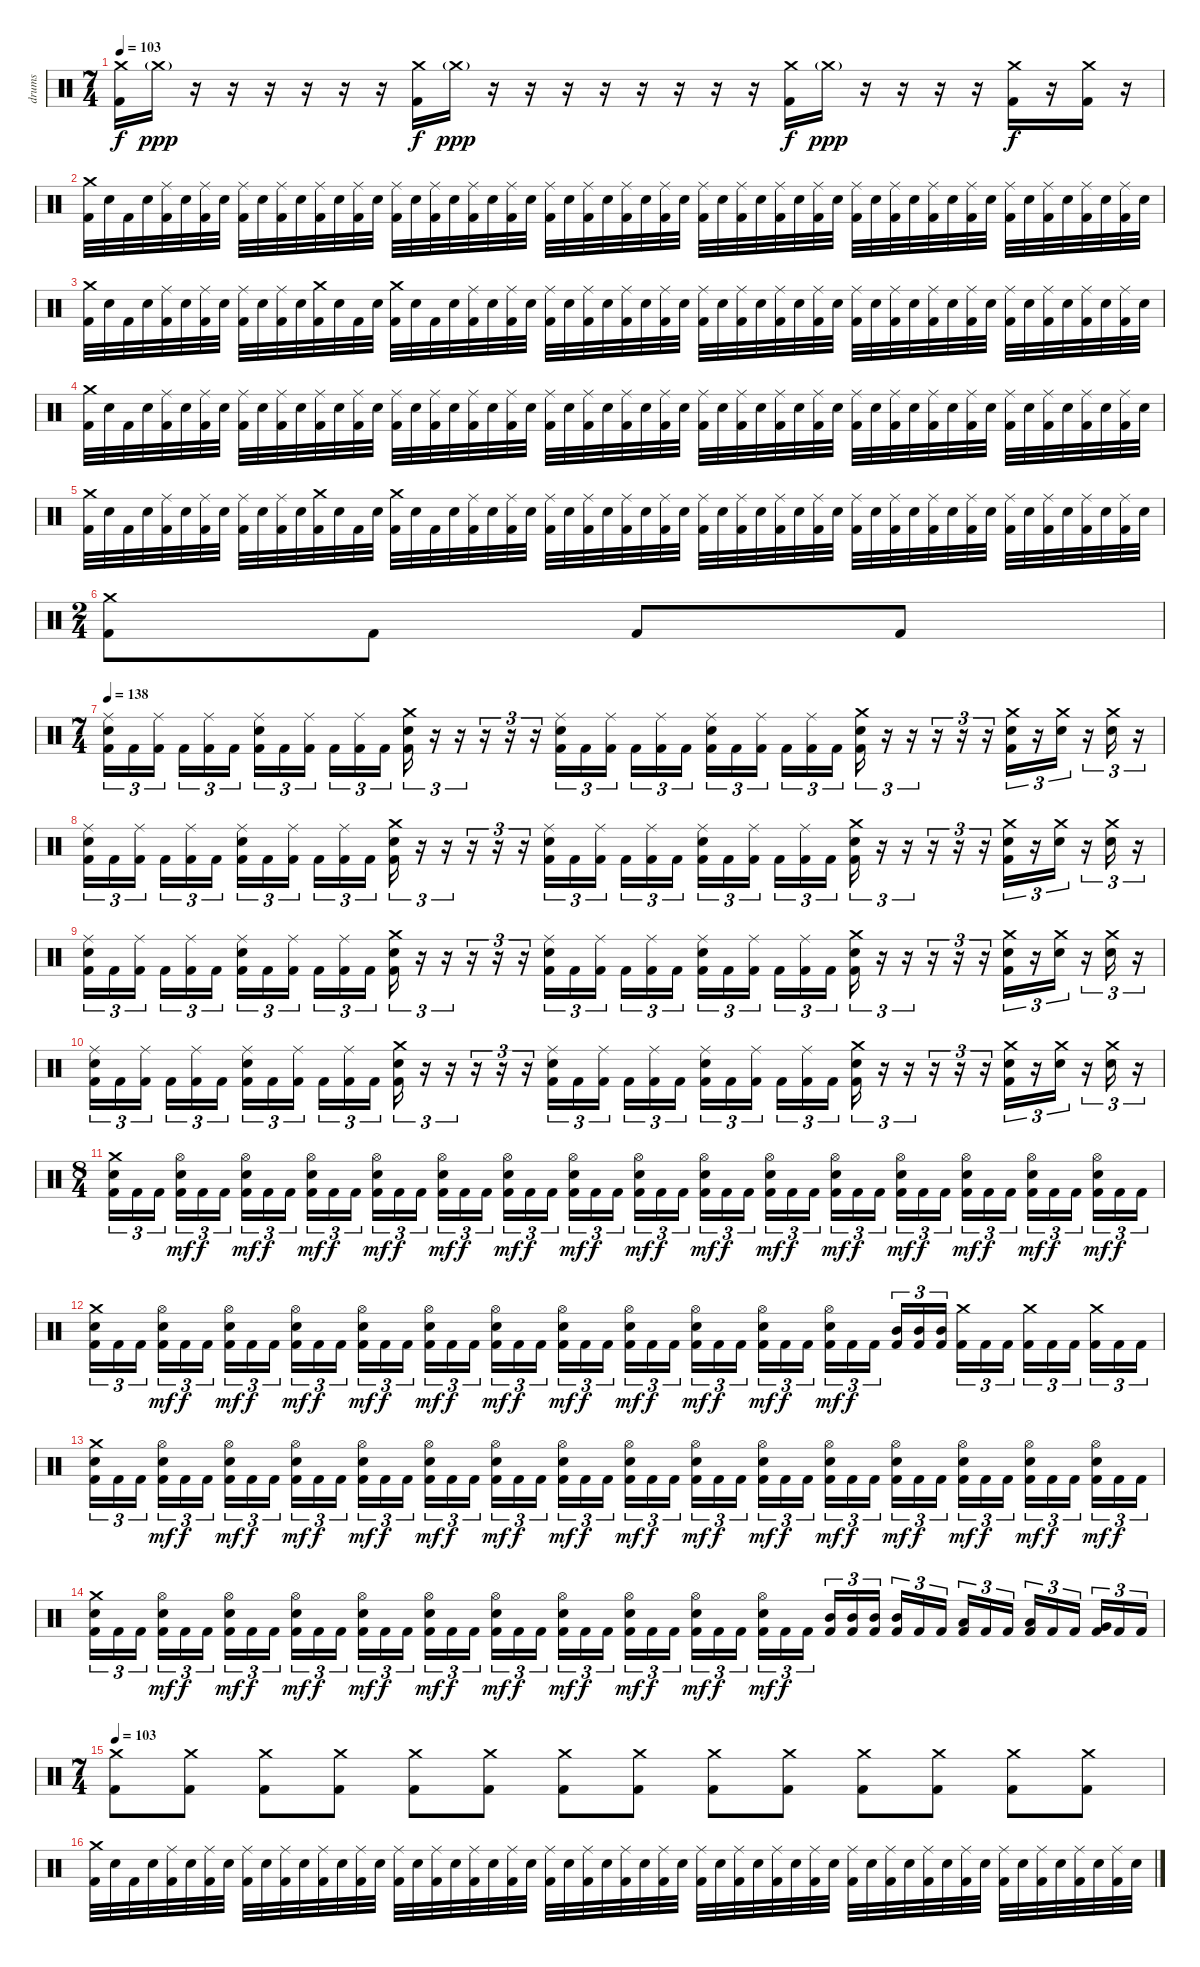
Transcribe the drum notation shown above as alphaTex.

\track ("drums" "drums") {instrument percussion}
\staff {score}
\articulation defaults
\ts (7 4)
\tempo 103
\clef neutral
\ks c
("Crash medium (hit)" "Kick (hit) 2").16{dy f} "Crash medium (hit)"{g}.16{dy ppp} r.16 r.16 r.16 r.16 r.16 r.16 ("Crash medium (hit)" "Kick (hit) 2").16{dy f} "Crash medium (hit)"{g}.16{dy ppp} r.16 r.16 r.16 r.16 r.16 r.16 r.16 r.16 ("Crash medium (hit)" "Kick (hit) 2").16{dy f} "Crash medium (hit)"{g}.16{dy ppp} r.16 r.16 r.16 r.16 ("Crash medium (hit)" "Kick (hit) 2").16{dy f} r.16 ("Crash medium (hit)" "Kick (hit) 2").16 r.16 |
("Crash medium (hit)" "Kick (hit) 2").32 "Electric Snare (hit)".32 "Kick (hit) 2".32 "Electric Snare (hit)".32 ("Ride (middle)" "Kick (hit) 2").32 "Electric Snare (hit)".32 ("Ride (middle)" "Kick (hit) 2").32 "Electric Snare (hit)".32 ("Ride (middle)" "Kick (hit) 2").32 "Electric Snare (hit)".32 ("Ride (middle)" "Kick (hit) 2").32 "Electric Snare (hit)".32 ("Ride (middle)" "Kick (hit) 2").32 "Electric Snare (hit)".32 ("Ride (middle)" "Kick (hit) 2").32 "Electric Snare (hit)".32 ("Ride (middle)" "Kick (hit) 2").32 "Electric Snare (hit)".32 ("Ride (middle)" "Kick (hit) 2").32 "Electric Snare (hit)".32 ("Ride (middle)" "Kick (hit) 2").32 "Electric Snare (hit)".32 ("Ride (middle)" "Kick (hit) 2").32 "Electric Snare (hit)".32 ("Ride (middle)" "Kick (hit) 2").32 "Electric Snare (hit)".32 ("Ride (middle)" "Kick (hit) 2").32 "Electric Snare (hit)".32 ("Ride (middle)" "Kick (hit) 2").32 "Electric Snare (hit)".32 ("Ride (middle)" "Kick (hit) 2").32 "Electric Snare (hit)".32 ("Ride (middle)" "Kick (hit) 2").32 "Electric Snare (hit)".32 ("Ride (middle)" "Kick (hit) 2").32 "Electric Snare (hit)".32 ("Ride (middle)" "Kick (hit) 2").32 "Electric Snare (hit)".32 ("Ride (middle)" "Kick (hit) 2").32 "Electric Snare (hit)".32 ("Ride (middle)" "Kick (hit) 2").32 "Electric Snare (hit)".32 ("Ride (middle)" "Kick (hit) 2").32 "Electric Snare (hit)".32 ("Ride (middle)" "Kick (hit) 2").32 "Electric Snare (hit)".32 ("Ride (middle)" "Kick (hit) 2").32 "Electric Snare (hit)".32 ("Ride (middle)" "Kick (hit) 2").32 "Electric Snare (hit)".32 ("Ride (middle)" "Kick (hit) 2").32 "Electric Snare (hit)".32 ("Ride (middle)" "Kick (hit) 2").32 "Electric Snare (hit)".32 ("Ride (middle)" "Kick (hit) 2").32 "Electric Snare (hit)".32 |
("Crash medium (hit)" "Kick (hit) 2").32 "Electric Snare (hit)".32 "Kick (hit) 2".32 "Electric Snare (hit)".32 ("Ride (middle)" "Kick (hit) 2").32 "Electric Snare (hit)".32 ("Ride (middle)" "Kick (hit) 2").32 "Electric Snare (hit)".32 ("Ride (middle)" "Kick (hit) 2").32 "Electric Snare (hit)".32 ("Ride (middle)" "Kick (hit) 2").32 "Electric Snare (hit)".32 ("Crash medium (hit)" "Kick (hit) 2").32 "Electric Snare (hit)".32 "Kick (hit) 2".32 "Electric Snare (hit)".32 ("Crash medium (hit)" "Kick (hit) 2").32 "Electric Snare (hit)".32 "Kick (hit) 2".32 "Electric Snare (hit)".32 ("Ride (middle)" "Kick (hit) 2").32 "Electric Snare (hit)".32 ("Ride (middle)" "Kick (hit) 2").32 "Electric Snare (hit)".32 ("Ride (middle)" "Kick (hit) 2").32 "Electric Snare (hit)".32 ("Ride (middle)" "Kick (hit) 2").32 "Electric Snare (hit)".32 ("Ride (middle)" "Kick (hit) 2").32 "Electric Snare (hit)".32 ("Ride (middle)" "Kick (hit) 2").32 "Electric Snare (hit)".32 ("Ride (middle)" "Kick (hit) 2").32 "Electric Snare (hit)".32 ("Ride (middle)" "Kick (hit) 2").32 "Electric Snare (hit)".32 ("Ride (middle)" "Kick (hit) 2").32 "Electric Snare (hit)".32 ("Ride (middle)" "Kick (hit) 2").32 "Electric Snare (hit)".32 ("Ride (middle)" "Kick (hit) 2").32 "Electric Snare (hit)".32 ("Ride (middle)" "Kick (hit) 2").32 "Electric Snare (hit)".32 ("Ride (middle)" "Kick (hit) 2").32 "Electric Snare (hit)".32 ("Ride (middle)" "Kick (hit) 2").32 "Electric Snare (hit)".32 ("Ride (middle)" "Kick (hit) 2").32 "Electric Snare (hit)".32 ("Ride (middle)" "Kick (hit) 2").32 "Electric Snare (hit)".32 ("Ride (middle)" "Kick (hit) 2").32 "Electric Snare (hit)".32 ("Ride (middle)" "Kick (hit) 2").32 "Electric Snare (hit)".32 |
("Crash medium (hit)" "Kick (hit) 2").32 "Electric Snare (hit)".32 "Kick (hit) 2".32 "Electric Snare (hit)".32 ("Ride (middle)" "Kick (hit) 2").32 "Electric Snare (hit)".32 ("Ride (middle)" "Kick (hit) 2").32 "Electric Snare (hit)".32 ("Ride (middle)" "Kick (hit) 2").32 "Electric Snare (hit)".32 ("Ride (middle)" "Kick (hit) 2").32 "Electric Snare (hit)".32 ("Ride (middle)" "Kick (hit) 2").32 "Electric Snare (hit)".32 ("Ride (middle)" "Kick (hit) 2").32 "Electric Snare (hit)".32 ("Ride (middle)" "Kick (hit) 2").32 "Electric Snare (hit)".32 ("Ride (middle)" "Kick (hit) 2").32 "Electric Snare (hit)".32 ("Ride (middle)" "Kick (hit) 2").32 "Electric Snare (hit)".32 ("Ride (middle)" "Kick (hit) 2").32 "Electric Snare (hit)".32 ("Ride (middle)" "Kick (hit) 2").32 "Electric Snare (hit)".32 ("Ride (middle)" "Kick (hit) 2").32 "Electric Snare (hit)".32 ("Ride (middle)" "Kick (hit) 2").32 "Electric Snare (hit)".32 ("Ride (middle)" "Kick (hit) 2").32 "Electric Snare (hit)".32 ("Ride (middle)" "Kick (hit) 2").32 "Electric Snare (hit)".32 ("Ride (middle)" "Kick (hit) 2").32 "Electric Snare (hit)".32 ("Ride (middle)" "Kick (hit) 2").32 "Electric Snare (hit)".32 ("Ride (middle)" "Kick (hit) 2").32 "Electric Snare (hit)".32 ("Ride (middle)" "Kick (hit) 2").32 "Electric Snare (hit)".32 ("Ride (middle)" "Kick (hit) 2").32 "Electric Snare (hit)".32 ("Ride (middle)" "Kick (hit) 2").32 "Electric Snare (hit)".32 ("Ride (middle)" "Kick (hit) 2").32 "Electric Snare (hit)".32 ("Ride (middle)" "Kick (hit) 2").32 "Electric Snare (hit)".32 ("Ride (middle)" "Kick (hit) 2").32 "Electric Snare (hit)".32 ("Ride (middle)" "Kick (hit) 2").32 "Electric Snare (hit)".32 ("Ride (middle)" "Kick (hit) 2").32 "Electric Snare (hit)".32 |
("Crash medium (hit)" "Kick (hit) 2").32 "Electric Snare (hit)".32 "Kick (hit) 2".32 "Electric Snare (hit)".32 ("Ride (middle)" "Kick (hit) 2").32 "Electric Snare (hit)".32 ("Ride (middle)" "Kick (hit) 2").32 "Electric Snare (hit)".32 ("Ride (middle)" "Kick (hit) 2").32 "Electric Snare (hit)".32 ("Ride (middle)" "Kick (hit) 2").32 "Electric Snare (hit)".32 ("Crash medium (hit)" "Kick (hit) 2").32 "Electric Snare (hit)".32 "Kick (hit) 2".32 "Electric Snare (hit)".32 ("Crash medium (hit)" "Kick (hit) 2").32 "Electric Snare (hit)".32 "Kick (hit) 2".32 "Electric Snare (hit)".32 ("Ride (middle)" "Kick (hit) 2").32 "Electric Snare (hit)".32 ("Ride (middle)" "Kick (hit) 2").32 "Electric Snare (hit)".32 ("Ride (middle)" "Kick (hit) 2").32 "Electric Snare (hit)".32 ("Ride (middle)" "Kick (hit) 2").32 "Electric Snare (hit)".32 ("Ride (middle)" "Kick (hit) 2").32 "Electric Snare (hit)".32 ("Ride (middle)" "Kick (hit) 2").32 "Electric Snare (hit)".32 ("Ride (middle)" "Kick (hit) 2").32 "Electric Snare (hit)".32 ("Ride (middle)" "Kick (hit) 2").32 "Electric Snare (hit)".32 ("Ride (middle)" "Kick (hit) 2").32 "Electric Snare (hit)".32 ("Ride (middle)" "Kick (hit) 2").32 "Electric Snare (hit)".32 ("Ride (middle)" "Kick (hit) 2").32 "Electric Snare (hit)".32 ("Ride (middle)" "Kick (hit) 2").32 "Electric Snare (hit)".32 ("Ride (middle)" "Kick (hit) 2").32 "Electric Snare (hit)".32 ("Ride (middle)" "Kick (hit) 2").32 "Electric Snare (hit)".32 ("Ride (middle)" "Kick (hit) 2").32 "Electric Snare (hit)".32 ("Ride (middle)" "Kick (hit) 2").32 "Electric Snare (hit)".32 ("Ride (middle)" "Kick (hit) 2").32 "Electric Snare (hit)".32 ("Ride (middle)" "Kick (hit) 2").32 "Electric Snare (hit)".32 |
\ts (2 4)
("Crash medium (hit)" "Kick (hit) 2").8 "Kick (hit) 2".8 "Kick (hit) 2".8 "Kick (hit) 2".8 |
\ts (7 4)
\tempo 138
("Ride (middle)" "Electric Snare (hit)" "Kick (hit) 2").16{tu (3 2)} "Kick (hit) 2".16{tu (3 2)} ("Ride (middle)" "Kick (hit) 2").16{tu (3 2)} "Kick (hit) 2".16{tu (3 2)} ("Ride (middle)" "Kick (hit) 2").16{tu (3 2)} "Kick (hit) 2".16{tu (3 2)} ("Ride (middle)" "Electric Snare (hit)" "Kick (hit) 2").16{tu (3 2)} "Kick (hit) 2".16{tu (3 2)} ("Ride (middle)" "Kick (hit) 2").16{tu (3 2)} "Kick (hit) 2".16{tu (3 2)} ("Ride (middle)" "Kick (hit) 2").16{tu (3 2)} "Kick (hit) 2".16{tu (3 2)} ("Crash medium (hit)" "Electric Snare (hit)" "Kick (hit) 2").16{tu (3 2)} r.16{tu (3 2)} r.16{tu (3 2)} r.16{tu (3 2)} r.16{tu (3 2)} r.16{tu (3 2)} ("Ride (middle)" "Electric Snare (hit)" "Kick (hit) 2").16{tu (3 2)} "Kick (hit) 2".16{tu (3 2)} ("Ride (middle)" "Kick (hit) 2").16{tu (3 2)} "Kick (hit) 2".16{tu (3 2)} ("Ride (middle)" "Kick (hit) 2").16{tu (3 2)} "Kick (hit) 2".16{tu (3 2)} ("Ride (middle)" "Electric Snare (hit)" "Kick (hit) 2").16{tu (3 2)} "Kick (hit) 2".16{tu (3 2)} ("Ride (middle)" "Kick (hit) 2").16{tu (3 2)} "Kick (hit) 2".16{tu (3 2)} ("Ride (middle)" "Kick (hit) 2").16{tu (3 2)} "Kick (hit) 2".16{tu (3 2)} ("Crash medium (hit)" "Electric Snare (hit)" "Kick (hit) 2").16{tu (3 2)} r.16{tu (3 2)} r.16{tu (3 2)} r.16{tu (3 2)} r.16{tu (3 2)} r.16{tu (3 2)} ("Crash medium (hit)" "Electric Snare (hit)" "Kick (hit) 2").16{tu (3 2)} r.16{tu (3 2)} ("Crash medium (hit)" "Electric Snare (hit)").16{tu (3 2)} r.16{tu (3 2)} ("Crash medium (hit)" "Electric Snare (hit)").16{tu (3 2)} r.16{tu (3 2)} |
("Ride (middle)" "Electric Snare (hit)" "Kick (hit) 2").16{tu (3 2)} "Kick (hit) 2".16{tu (3 2)} ("Ride (middle)" "Kick (hit) 2").16{tu (3 2)} "Kick (hit) 2".16{tu (3 2)} ("Ride (middle)" "Kick (hit) 2").16{tu (3 2)} "Kick (hit) 2".16{tu (3 2)} ("Ride (middle)" "Electric Snare (hit)" "Kick (hit) 2").16{tu (3 2)} "Kick (hit) 2".16{tu (3 2)} ("Ride (middle)" "Kick (hit) 2").16{tu (3 2)} "Kick (hit) 2".16{tu (3 2)} ("Ride (middle)" "Kick (hit) 2").16{tu (3 2)} "Kick (hit) 2".16{tu (3 2)} ("Crash medium (hit)" "Electric Snare (hit)" "Kick (hit) 2").16{tu (3 2)} r.16{tu (3 2)} r.16{tu (3 2)} r.16{tu (3 2)} r.16{tu (3 2)} r.16{tu (3 2)} ("Ride (middle)" "Electric Snare (hit)" "Kick (hit) 2").16{tu (3 2)} "Kick (hit) 2".16{tu (3 2)} ("Ride (middle)" "Kick (hit) 2").16{tu (3 2)} "Kick (hit) 2".16{tu (3 2)} ("Ride (middle)" "Kick (hit) 2").16{tu (3 2)} "Kick (hit) 2".16{tu (3 2)} ("Ride (middle)" "Electric Snare (hit)" "Kick (hit) 2").16{tu (3 2)} "Kick (hit) 2".16{tu (3 2)} ("Ride (middle)" "Kick (hit) 2").16{tu (3 2)} "Kick (hit) 2".16{tu (3 2)} ("Ride (middle)" "Kick (hit) 2").16{tu (3 2)} "Kick (hit) 2".16{tu (3 2)} ("Crash medium (hit)" "Electric Snare (hit)" "Kick (hit) 2").16{tu (3 2)} r.16{tu (3 2)} r.16{tu (3 2)} r.16{tu (3 2)} r.16{tu (3 2)} r.16{tu (3 2)} ("Crash medium (hit)" "Electric Snare (hit)" "Kick (hit) 2").16{tu (3 2)} r.16{tu (3 2)} ("Crash medium (hit)" "Electric Snare (hit)").16{tu (3 2)} r.16{tu (3 2)} ("Crash medium (hit)" "Electric Snare (hit)").16{tu (3 2)} r.16{tu (3 2)} |
("Ride (middle)" "Electric Snare (hit)" "Kick (hit) 2").16{tu (3 2)} "Kick (hit) 2".16{tu (3 2)} ("Ride (middle)" "Kick (hit) 2").16{tu (3 2)} "Kick (hit) 2".16{tu (3 2)} ("Ride (middle)" "Kick (hit) 2").16{tu (3 2)} "Kick (hit) 2".16{tu (3 2)} ("Ride (middle)" "Electric Snare (hit)" "Kick (hit) 2").16{tu (3 2)} "Kick (hit) 2".16{tu (3 2)} ("Ride (middle)" "Kick (hit) 2").16{tu (3 2)} "Kick (hit) 2".16{tu (3 2)} ("Ride (middle)" "Kick (hit) 2").16{tu (3 2)} "Kick (hit) 2".16{tu (3 2)} ("Crash medium (hit)" "Electric Snare (hit)" "Kick (hit) 2").16{tu (3 2)} r.16{tu (3 2)} r.16{tu (3 2)} r.16{tu (3 2)} r.16{tu (3 2)} r.16{tu (3 2)} ("Ride (middle)" "Electric Snare (hit)" "Kick (hit) 2").16{tu (3 2)} "Kick (hit) 2".16{tu (3 2)} ("Ride (middle)" "Kick (hit) 2").16{tu (3 2)} "Kick (hit) 2".16{tu (3 2)} ("Ride (middle)" "Kick (hit) 2").16{tu (3 2)} "Kick (hit) 2".16{tu (3 2)} ("Ride (middle)" "Electric Snare (hit)" "Kick (hit) 2").16{tu (3 2)} "Kick (hit) 2".16{tu (3 2)} ("Ride (middle)" "Kick (hit) 2").16{tu (3 2)} "Kick (hit) 2".16{tu (3 2)} ("Ride (middle)" "Kick (hit) 2").16{tu (3 2)} "Kick (hit) 2".16{tu (3 2)} ("Crash medium (hit)" "Electric Snare (hit)" "Kick (hit) 2").16{tu (3 2)} r.16{tu (3 2)} r.16{tu (3 2)} r.16{tu (3 2)} r.16{tu (3 2)} r.16{tu (3 2)} ("Crash medium (hit)" "Electric Snare (hit)" "Kick (hit) 2").16{tu (3 2)} r.16{tu (3 2)} ("Crash medium (hit)" "Electric Snare (hit)").16{tu (3 2)} r.16{tu (3 2)} ("Crash medium (hit)" "Electric Snare (hit)").16{tu (3 2)} r.16{tu (3 2)} |
("Ride (middle)" "Electric Snare (hit)" "Kick (hit) 2").16{tu (3 2)} "Kick (hit) 2".16{tu (3 2)} ("Ride (middle)" "Kick (hit) 2").16{tu (3 2)} "Kick (hit) 2".16{tu (3 2)} ("Ride (middle)" "Kick (hit) 2").16{tu (3 2)} "Kick (hit) 2".16{tu (3 2)} ("Ride (middle)" "Electric Snare (hit)" "Kick (hit) 2").16{tu (3 2)} "Kick (hit) 2".16{tu (3 2)} ("Ride (middle)" "Kick (hit) 2").16{tu (3 2)} "Kick (hit) 2".16{tu (3 2)} ("Ride (middle)" "Kick (hit) 2").16{tu (3 2)} "Kick (hit) 2".16{tu (3 2)} ("Crash medium (hit)" "Electric Snare (hit)" "Kick (hit) 2").16{tu (3 2)} r.16{tu (3 2)} r.16{tu (3 2)} r.16{tu (3 2)} r.16{tu (3 2)} r.16{tu (3 2)} ("Ride (middle)" "Electric Snare (hit)" "Kick (hit) 2").16{tu (3 2)} "Kick (hit) 2".16{tu (3 2)} ("Ride (middle)" "Kick (hit) 2").16{tu (3 2)} "Kick (hit) 2".16{tu (3 2)} ("Ride (middle)" "Kick (hit) 2").16{tu (3 2)} "Kick (hit) 2".16{tu (3 2)} ("Ride (middle)" "Electric Snare (hit)" "Kick (hit) 2").16{tu (3 2)} "Kick (hit) 2".16{tu (3 2)} ("Ride (middle)" "Kick (hit) 2").16{tu (3 2)} "Kick (hit) 2".16{tu (3 2)} ("Ride (middle)" "Kick (hit) 2").16{tu (3 2)} "Kick (hit) 2".16{tu (3 2)} ("Crash medium (hit)" "Electric Snare (hit)" "Kick (hit) 2").16{tu (3 2)} r.16{tu (3 2)} r.16{tu (3 2)} r.16{tu (3 2)} r.16{tu (3 2)} r.16{tu (3 2)} ("Crash medium (hit)" "Electric Snare (hit)" "Kick (hit) 2").16{tu (3 2)} r.16{tu (3 2)} ("Crash medium (hit)" "Electric Snare (hit)").16{tu (3 2)} r.16{tu (3 2)} ("Crash medium (hit)" "Electric Snare (hit)").16{tu (3 2)} r.16{tu (3 2)} |
\ts (8 4)
("Crash medium (hit)" "Electric Snare (hit)" "Kick (hit) 2").16{tu (3 2)} "Kick (hit) 2".16{tu (3 2)} "Kick (hit) 2".16{tu (3 2)} ("Hi-Hat (open)" "Electric Snare (hit)" "Kick (hit) 2").16{tu (3 2) dy mf} "Kick (hit) 2".16{tu (3 2) dy f} "Kick (hit) 2".16{tu (3 2)} ("Hi-Hat (open)" "Electric Snare (hit)" "Kick (hit) 2").16{tu (3 2) dy mf} "Kick (hit) 2".16{tu (3 2) dy f} "Kick (hit) 2".16{tu (3 2)} ("Hi-Hat (open)" "Electric Snare (hit)" "Kick (hit) 2").16{tu (3 2) dy mf} "Kick (hit) 2".16{tu (3 2) dy f} "Kick (hit) 2".16{tu (3 2)} ("Hi-Hat (open)" "Electric Snare (hit)" "Kick (hit) 2").16{tu (3 2) dy mf} "Kick (hit) 2".16{tu (3 2) dy f} "Kick (hit) 2".16{tu (3 2)} ("Hi-Hat (open)" "Electric Snare (hit)" "Kick (hit) 2").16{tu (3 2) dy mf} "Kick (hit) 2".16{tu (3 2) dy f} "Kick (hit) 2".16{tu (3 2)} ("Hi-Hat (open)" "Electric Snare (hit)" "Kick (hit) 2").16{tu (3 2) dy mf} "Kick (hit) 2".16{tu (3 2) dy f} "Kick (hit) 2".16{tu (3 2)} ("Hi-Hat (open)" "Electric Snare (hit)" "Kick (hit) 2").16{tu (3 2) dy mf} "Kick (hit) 2".16{tu (3 2) dy f} "Kick (hit) 2".16{tu (3 2)} ("Hi-Hat (open)" "Electric Snare (hit)" "Kick (hit) 2").16{tu (3 2) dy mf} "Kick (hit) 2".16{tu (3 2) dy f} "Kick (hit) 2".16{tu (3 2)} ("Hi-Hat (open)" "Electric Snare (hit)" "Kick (hit) 2").16{tu (3 2) dy mf} "Kick (hit) 2".16{tu (3 2) dy f} "Kick (hit) 2".16{tu (3 2)} ("Hi-Hat (open)" "Electric Snare (hit)" "Kick (hit) 2").16{tu (3 2) dy mf} "Kick (hit) 2".16{tu (3 2) dy f} "Kick (hit) 2".16{tu (3 2)} ("Hi-Hat (open)" "Electric Snare (hit)" "Kick (hit) 2").16{tu (3 2) dy mf} "Kick (hit) 2".16{tu (3 2) dy f} "Kick (hit) 2".16{tu (3 2)} ("Hi-Hat (open)" "Electric Snare (hit)" "Kick (hit) 2").16{tu (3 2) dy mf} "Kick (hit) 2".16{tu (3 2) dy f} "Kick (hit) 2".16{tu (3 2)} ("Hi-Hat (open)" "Electric Snare (hit)" "Kick (hit) 2").16{tu (3 2) dy mf} "Kick (hit) 2".16{tu (3 2) dy f} "Kick (hit) 2".16{tu (3 2)} ("Hi-Hat (open)" "Electric Snare (hit)" "Kick (hit) 2").16{tu (3 2) dy mf} "Kick (hit) 2".16{tu (3 2) dy f} "Kick (hit) 2".16{tu (3 2)} ("Hi-Hat (open)" "Electric Snare (hit)" "Kick (hit) 2").16{tu (3 2) dy mf} "Kick (hit) 2".16{tu (3 2) dy f} "Kick (hit) 2".16{tu (3 2)} |
("Crash medium (hit)" "Electric Snare (hit)" "Kick (hit) 2").16{tu (3 2)} "Kick (hit) 2".16{tu (3 2)} "Kick (hit) 2".16{tu (3 2)} ("Hi-Hat (open)" "Electric Snare (hit)" "Kick (hit) 2").16{tu (3 2) dy mf} "Kick (hit) 2".16{tu (3 2) dy f} "Kick (hit) 2".16{tu (3 2)} ("Hi-Hat (open)" "Electric Snare (hit)" "Kick (hit) 2").16{tu (3 2) dy mf} "Kick (hit) 2".16{tu (3 2) dy f} "Kick (hit) 2".16{tu (3 2)} ("Hi-Hat (open)" "Electric Snare (hit)" "Kick (hit) 2").16{tu (3 2) dy mf} "Kick (hit) 2".16{tu (3 2) dy f} "Kick (hit) 2".16{tu (3 2)} ("Hi-Hat (open)" "Electric Snare (hit)" "Kick (hit) 2").16{tu (3 2) dy mf} "Kick (hit) 2".16{tu (3 2) dy f} "Kick (hit) 2".16{tu (3 2)} ("Hi-Hat (open)" "Electric Snare (hit)" "Kick (hit) 2").16{tu (3 2) dy mf} "Kick (hit) 2".16{tu (3 2) dy f} "Kick (hit) 2".16{tu (3 2)} ("Hi-Hat (open)" "Electric Snare (hit)" "Kick (hit) 2").16{tu (3 2) dy mf} "Kick (hit) 2".16{tu (3 2) dy f} "Kick (hit) 2".16{tu (3 2)} ("Hi-Hat (open)" "Electric Snare (hit)" "Kick (hit) 2").16{tu (3 2) dy mf} "Kick (hit) 2".16{tu (3 2) dy f} "Kick (hit) 2".16{tu (3 2)} ("Hi-Hat (open)" "Electric Snare (hit)" "Kick (hit) 2").16{tu (3 2) dy mf} "Kick (hit) 2".16{tu (3 2) dy f} "Kick (hit) 2".16{tu (3 2)} ("Hi-Hat (open)" "Electric Snare (hit)" "Kick (hit) 2").16{tu (3 2) dy mf} "Kick (hit) 2".16{tu (3 2) dy f} "Kick (hit) 2".16{tu (3 2)} ("Hi-Hat (open)" "Electric Snare (hit)" "Kick (hit) 2").16{tu (3 2) dy mf} "Kick (hit) 2".16{tu (3 2) dy f} "Kick (hit) 2".16{tu (3 2)} ("Hi-Hat (open)" "Electric Snare (hit)" "Kick (hit) 2").16{tu (3 2) dy mf} "Kick (hit) 2".16{tu (3 2) dy f} "Kick (hit) 2".16{tu (3 2)} ("Mid Tom (hit)" "Kick (hit) 2").16{tu (3 2)} ("Mid Tom (hit)" "Kick (hit) 2").16{tu (3 2)} ("Mid Tom (hit)" "Kick (hit) 2").16{tu (3 2)} ("Crash medium (hit)" "Kick (hit) 2").16{tu (3 2)} "Kick (hit) 2".16{tu (3 2)} "Kick (hit) 2".16{tu (3 2)} ("Crash medium (hit)" "Kick (hit) 2").16{tu (3 2)} "Kick (hit) 2".16{tu (3 2)} "Kick (hit) 2".16{tu (3 2)} ("Crash medium (hit)" "Kick (hit) 2").16{tu (3 2)} "Kick (hit) 2".16{tu (3 2)} "Kick (hit) 2".16{tu (3 2)} |
("Crash medium (hit)" "Electric Snare (hit)" "Kick (hit) 2").16{tu (3 2)} "Kick (hit) 2".16{tu (3 2)} "Kick (hit) 2".16{tu (3 2)} ("Hi-Hat (open)" "Electric Snare (hit)" "Kick (hit) 2").16{tu (3 2) dy mf} "Kick (hit) 2".16{tu (3 2) dy f} "Kick (hit) 2".16{tu (3 2)} ("Hi-Hat (open)" "Electric Snare (hit)" "Kick (hit) 2").16{tu (3 2) dy mf} "Kick (hit) 2".16{tu (3 2) dy f} "Kick (hit) 2".16{tu (3 2)} ("Hi-Hat (open)" "Electric Snare (hit)" "Kick (hit) 2").16{tu (3 2) dy mf} "Kick (hit) 2".16{tu (3 2) dy f} "Kick (hit) 2".16{tu (3 2)} ("Hi-Hat (open)" "Electric Snare (hit)" "Kick (hit) 2").16{tu (3 2) dy mf} "Kick (hit) 2".16{tu (3 2) dy f} "Kick (hit) 2".16{tu (3 2)} ("Hi-Hat (open)" "Electric Snare (hit)" "Kick (hit) 2").16{tu (3 2) dy mf} "Kick (hit) 2".16{tu (3 2) dy f} "Kick (hit) 2".16{tu (3 2)} ("Hi-Hat (open)" "Electric Snare (hit)" "Kick (hit) 2").16{tu (3 2) dy mf} "Kick (hit) 2".16{tu (3 2) dy f} "Kick (hit) 2".16{tu (3 2)} ("Hi-Hat (open)" "Electric Snare (hit)" "Kick (hit) 2").16{tu (3 2) dy mf} "Kick (hit) 2".16{tu (3 2) dy f} "Kick (hit) 2".16{tu (3 2)} ("Hi-Hat (open)" "Electric Snare (hit)" "Kick (hit) 2").16{tu (3 2) dy mf} "Kick (hit) 2".16{tu (3 2) dy f} "Kick (hit) 2".16{tu (3 2)} ("Hi-Hat (open)" "Electric Snare (hit)" "Kick (hit) 2").16{tu (3 2) dy mf} "Kick (hit) 2".16{tu (3 2) dy f} "Kick (hit) 2".16{tu (3 2)} ("Hi-Hat (open)" "Electric Snare (hit)" "Kick (hit) 2").16{tu (3 2) dy mf} "Kick (hit) 2".16{tu (3 2) dy f} "Kick (hit) 2".16{tu (3 2)} ("Hi-Hat (open)" "Electric Snare (hit)" "Kick (hit) 2").16{tu (3 2) dy mf} "Kick (hit) 2".16{tu (3 2) dy f} "Kick (hit) 2".16{tu (3 2)} ("Hi-Hat (open)" "Electric Snare (hit)" "Kick (hit) 2").16{tu (3 2) dy mf} "Kick (hit) 2".16{tu (3 2) dy f} "Kick (hit) 2".16{tu (3 2)} ("Hi-Hat (open)" "Electric Snare (hit)" "Kick (hit) 2").16{tu (3 2) dy mf} "Kick (hit) 2".16{tu (3 2) dy f} "Kick (hit) 2".16{tu (3 2)} ("Hi-Hat (open)" "Electric Snare (hit)" "Kick (hit) 2").16{tu (3 2) dy mf} "Kick (hit) 2".16{tu (3 2) dy f} "Kick (hit) 2".16{tu (3 2)} ("Hi-Hat (open)" "Electric Snare (hit)" "Kick (hit) 2").16{tu (3 2) dy mf} "Kick (hit) 2".16{tu (3 2) dy f} "Kick (hit) 2".16{tu (3 2)} |
("Crash medium (hit)" "Electric Snare (hit)" "Kick (hit) 2").16{tu (3 2)} "Kick (hit) 2".16{tu (3 2)} "Kick (hit) 2".16{tu (3 2)} ("Hi-Hat (open)" "Electric Snare (hit)" "Kick (hit) 2").16{tu (3 2) dy mf} "Kick (hit) 2".16{tu (3 2) dy f} "Kick (hit) 2".16{tu (3 2)} ("Hi-Hat (open)" "Electric Snare (hit)" "Kick (hit) 2").16{tu (3 2) dy mf} "Kick (hit) 2".16{tu (3 2) dy f} "Kick (hit) 2".16{tu (3 2)} ("Hi-Hat (open)" "Electric Snare (hit)" "Kick (hit) 2").16{tu (3 2) dy mf} "Kick (hit) 2".16{tu (3 2) dy f} "Kick (hit) 2".16{tu (3 2)} ("Hi-Hat (open)" "Electric Snare (hit)" "Kick (hit) 2").16{tu (3 2) dy mf} "Kick (hit) 2".16{tu (3 2) dy f} "Kick (hit) 2".16{tu (3 2)} ("Hi-Hat (open)" "Electric Snare (hit)" "Kick (hit) 2").16{tu (3 2) dy mf} "Kick (hit) 2".16{tu (3 2) dy f} "Kick (hit) 2".16{tu (3 2)} ("Hi-Hat (open)" "Electric Snare (hit)" "Kick (hit) 2").16{tu (3 2) dy mf} "Kick (hit) 2".16{tu (3 2) dy f} "Kick (hit) 2".16{tu (3 2)} ("Hi-Hat (open)" "Electric Snare (hit)" "Kick (hit) 2").16{tu (3 2) dy mf} "Kick (hit) 2".16{tu (3 2) dy f} "Kick (hit) 2".16{tu (3 2)} ("Hi-Hat (open)" "Electric Snare (hit)" "Kick (hit) 2").16{tu (3 2) dy mf} "Kick (hit) 2".16{tu (3 2) dy f} "Kick (hit) 2".16{tu (3 2)} ("Hi-Hat (open)" "Electric Snare (hit)" "Kick (hit) 2").16{tu (3 2) dy mf} "Kick (hit) 2".16{tu (3 2) dy f} "Kick (hit) 2".16{tu (3 2)} ("Hi-Hat (open)" "Electric Snare (hit)" "Kick (hit) 2").16{tu (3 2) dy mf} "Kick (hit) 2".16{tu (3 2) dy f} "Kick (hit) 2".16{tu (3 2)} ("Mid Tom (hit)" "Kick (hit) 2").16{tu (3 2)} ("Mid Tom (hit)" "Kick (hit) 2").16{tu (3 2)} ("Mid Tom (hit)" "Kick (hit) 2").16{tu (3 2)} ("Mid Tom (hit)" "Kick (hit) 2").16{tu (3 2)} "Kick (hit) 2".16{tu (3 2)} "Kick (hit) 2".16{tu (3 2)} ("Low Tom (hit)" "Kick (hit) 2").16{tu (3 2)} "Kick (hit) 2".16{tu (3 2)} "Kick (hit) 2".16{tu (3 2)} ("Low Tom (hit)" "Kick (hit) 2").16{tu (3 2)} "Kick (hit) 2".16{tu (3 2)} "Kick (hit) 2".16{tu (3 2)} ("Very Low Tom (hit)" "Kick (hit) 2").16{tu (3 2)} "Kick (hit) 2".16{tu (3 2)} "Kick (hit) 2".16{tu (3 2)} |
\ts (7 4)
\tempo 103
("Crash medium (hit)" "Kick (hit) 2").8 ("Crash medium (hit)" "Kick (hit) 2").8 ("Crash medium (hit)" "Kick (hit) 2").8 ("Crash medium (hit)" "Kick (hit) 2").8 ("Crash medium (hit)" "Kick (hit) 2").8 ("Crash medium (hit)" "Kick (hit) 2").8 ("Crash medium (hit)" "Kick (hit) 2").8 ("Crash medium (hit)" "Kick (hit) 2").8 ("Crash medium (hit)" "Kick (hit) 2").8 ("Crash medium (hit)" "Kick (hit) 2").8 ("Crash medium (hit)" "Kick (hit) 2").8 ("Crash medium (hit)" "Kick (hit) 2").8 ("Crash medium (hit)" "Kick (hit) 2").8 ("Crash medium (hit)" "Kick (hit) 2").8 |
("Crash medium (hit)" "Kick (hit) 2").32 "Electric Snare (hit)".32 "Kick (hit) 2".32 "Electric Snare (hit)".32 ("Ride (middle)" "Kick (hit) 2").32 "Electric Snare (hit)".32 ("Ride (middle)" "Kick (hit) 2").32 "Electric Snare (hit)".32 ("Ride (middle)" "Kick (hit) 2").32 "Electric Snare (hit)".32 ("Ride (middle)" "Kick (hit) 2").32 "Electric Snare (hit)".32 ("Ride (middle)" "Kick (hit) 2").32 "Electric Snare (hit)".32 ("Ride (middle)" "Kick (hit) 2").32 "Electric Snare (hit)".32 ("Ride (middle)" "Kick (hit) 2").32 "Electric Snare (hit)".32 ("Ride (middle)" "Kick (hit) 2").32 "Electric Snare (hit)".32 ("Ride (middle)" "Kick (hit) 2").32 "Electric Snare (hit)".32 ("Ride (middle)" "Kick (hit) 2").32 "Electric Snare (hit)".32 ("Ride (middle)" "Kick (hit) 2").32 "Electric Snare (hit)".32 ("Ride (middle)" "Kick (hit) 2").32 "Electric Snare (hit)".32 ("Ride (middle)" "Kick (hit) 2").32 "Electric Snare (hit)".32 ("Ride (middle)" "Kick (hit) 2").32 "Electric Snare (hit)".32 ("Ride (middle)" "Kick (hit) 2").32 "Electric Snare (hit)".32 ("Ride (middle)" "Kick (hit) 2").32 "Electric Snare (hit)".32 ("Ride (middle)" "Kick (hit) 2").32 "Electric Snare (hit)".32 ("Ride (middle)" "Kick (hit) 2").32 "Electric Snare (hit)".32 ("Ride (middle)" "Kick (hit) 2").32 "Electric Snare (hit)".32 ("Ride (middle)" "Kick (hit) 2").32 "Electric Snare (hit)".32 ("Ride (middle)" "Kick (hit) 2").32 "Electric Snare (hit)".32 ("Ride (middle)" "Kick (hit) 2").32 "Electric Snare (hit)".32 ("Ride (middle)" "Kick (hit) 2").32 "Electric Snare (hit)".32 ("Ride (middle)" "Kick (hit) 2").32 "Electric Snare (hit)".32 ("Ride (middle)" "Kick (hit) 2").32 "Electric Snare (hit)".32 ("Ride (middle)" "Kick (hit) 2").32 "Electric Snare (hit)".32
